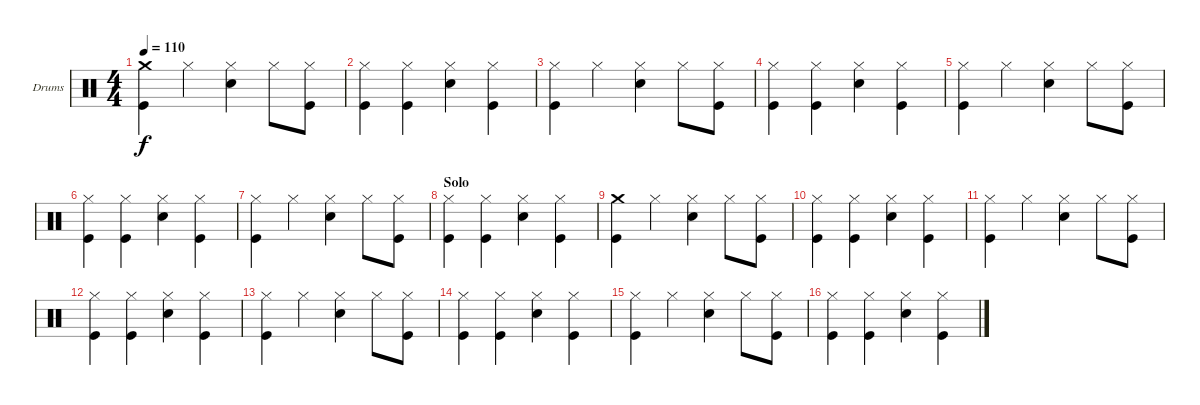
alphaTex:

\defaultSystemsLayout 4
\bracketExtendMode groupsimilarinstruments
\firstSystemTrackNameOrientation horizontal
\otherSystemsTrackNameOrientation horizontal
\track ("Drum" "Drums") {instrument percussion}
\staff {score}
\articulation defaults
\ts (4 4)
\tempo 110
\clef neutral
\ks c
("Crash medium (hit)" "Kick (hit)").4{dy f} "Hi-Hat (closed)".4 ("Hi-Hat (closed)" "Snare (hit) 2").4 "Hi-Hat (closed)".8 ("Hi-Hat (closed)" "Kick (hit)").8 |
("Hi-Hat (closed)" "Kick (hit)").4 ("Hi-Hat (closed)" "Kick (hit)").4 ("Hi-Hat (closed)" "Snare (hit) 2").4 ("Hi-Hat (closed)" "Kick (hit)").4 |
("Hi-Hat (closed)" "Kick (hit)").4 "Hi-Hat (closed)".4 ("Hi-Hat (closed)" "Snare (hit) 2").4 "Hi-Hat (closed)".8 ("Hi-Hat (closed)" "Kick (hit)").8 |
("Hi-Hat (closed)" "Kick (hit)").4 ("Hi-Hat (closed)" "Kick (hit)").4 ("Hi-Hat (closed)" "Snare (hit) 2").4 ("Hi-Hat (closed)" "Kick (hit)").4 |
("Hi-Hat (closed)" "Kick (hit)").4 "Hi-Hat (closed)".4 ("Hi-Hat (closed)" "Snare (hit) 2").4 "Hi-Hat (closed)".8 ("Hi-Hat (closed)" "Kick (hit)").8 |
("Hi-Hat (closed)" "Kick (hit)").4 ("Hi-Hat (closed)" "Kick (hit)").4 ("Hi-Hat (closed)" "Snare (hit) 2").4 ("Hi-Hat (closed)" "Kick (hit)").4 |
("Hi-Hat (closed)" "Kick (hit)").4 "Hi-Hat (closed)".4 ("Hi-Hat (closed)" "Snare (hit) 2").4 "Hi-Hat (closed)".8 ("Hi-Hat (closed)" "Kick (hit)").8 |
\section ("" "Solo")
("Hi-Hat (closed)" "Kick (hit)").4 ("Hi-Hat (closed)" "Kick (hit)").4 ("Hi-Hat (closed)" "Snare (hit) 2").4 ("Hi-Hat (closed)" "Kick (hit)").4 |
("Crash medium (hit)" "Kick (hit)").4 "Hi-Hat (closed)".4 ("Hi-Hat (closed)" "Snare (hit) 2").4 "Hi-Hat (closed)".8 ("Hi-Hat (closed)" "Kick (hit)").8 |
("Hi-Hat (closed)" "Kick (hit)").4 ("Hi-Hat (closed)" "Kick (hit)").4 ("Hi-Hat (closed)" "Snare (hit) 2").4 ("Hi-Hat (closed)" "Kick (hit)").4 |
("Hi-Hat (closed)" "Kick (hit)").4 "Hi-Hat (closed)".4 ("Hi-Hat (closed)" "Snare (hit) 2").4 "Hi-Hat (closed)".8 ("Hi-Hat (closed)" "Kick (hit)").8 |
("Hi-Hat (closed)" "Kick (hit)").4 ("Hi-Hat (closed)" "Kick (hit)").4 ("Hi-Hat (closed)" "Snare (hit) 2").4 ("Hi-Hat (closed)" "Kick (hit)").4 |
("Hi-Hat (closed)" "Kick (hit)").4 "Hi-Hat (closed)".4 ("Hi-Hat (closed)" "Snare (hit) 2").4 "Hi-Hat (closed)".8 ("Hi-Hat (closed)" "Kick (hit)").8 |
("Hi-Hat (closed)" "Kick (hit)").4 ("Hi-Hat (closed)" "Kick (hit)").4 ("Hi-Hat (closed)" "Snare (hit) 2").4 ("Hi-Hat (closed)" "Kick (hit)").4 |
("Hi-Hat (closed)" "Kick (hit)").4 "Hi-Hat (closed)".4 ("Hi-Hat (closed)" "Snare (hit) 2").4 "Hi-Hat (closed)".8 ("Hi-Hat (closed)" "Kick (hit)").8 |
("Hi-Hat (closed)" "Kick (hit)").4 ("Hi-Hat (closed)" "Kick (hit)").4 ("Hi-Hat (closed)" "Snare (hit) 2").4 ("Hi-Hat (closed)" "Kick (hit)").4
